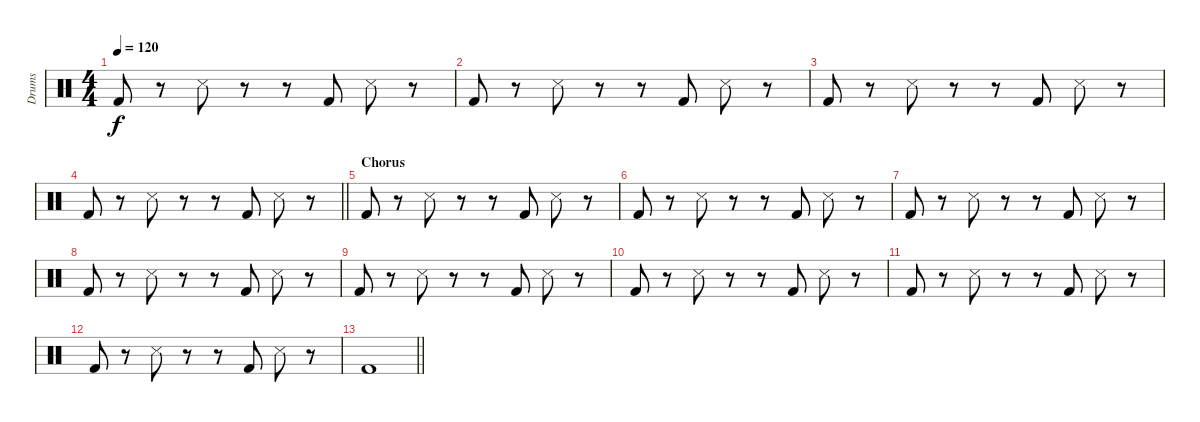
\track ("Drums" "Drums") {instrument percussion}
\staff {score}
\articulation defaults
\ts (4 4)
\tempo 120
\clef neutral
\ks c "Kick (hit) 2".8{dy f}
r.8 "Snare (side stick) 3".8 r.8 r.8 "Kick (hit) 2".8 "Snare (side stick) 3".8 r.8 |
"Kick (hit) 2".8 r.8 "Snare (side stick) 3".8 r.8 r.8 "Kick (hit) 2".8 "Snare (side stick) 3".8 r.8 |
"Kick (hit) 2".8 r.8 "Snare (side stick) 3".8 r.8 r.8 "Kick (hit) 2".8 "Snare (side stick) 3".8 r.8 |
\barLineRight lightlight "Kick (hit) 2".8
r.8 "Snare (side stick) 3".8 r.8 r.8 "Kick (hit) 2".8 "Snare (side stick) 3".8 r.8 |
\section ("" "Chorus")
"Kick (hit) 2".8 r.8 "Snare (side stick) 3".8 r.8 r.8 "Kick (hit) 2".8 "Snare (side stick) 3".8 r.8 |
"Kick (hit) 2".8 r.8 "Snare (side stick) 3".8 r.8 r.8 "Kick (hit) 2".8 "Snare (side stick) 3".8 r.8 |
"Kick (hit) 2".8 r.8 "Snare (side stick) 3".8 r.8 r.8 "Kick (hit) 2".8 "Snare (side stick) 3".8 r.8 |
"Kick (hit) 2".8 r.8 "Snare (side stick) 3".8 r.8 r.8 "Kick (hit) 2".8 "Snare (side stick) 3".8 r.8 |
"Kick (hit) 2".8 r.8 "Snare (side stick) 3".8 r.8 r.8 "Kick (hit) 2".8 "Snare (side stick) 3".8 r.8 |
"Kick (hit) 2".8 r.8 "Snare (side stick) 3".8 r.8 r.8 "Kick (hit) 2".8 "Snare (side stick) 3".8 r.8 |
"Kick (hit) 2".8 r.8 "Snare (side stick) 3".8 r.8 r.8 "Kick (hit) 2".8 "Snare (side stick) 3".8 r.8 |
"Kick (hit) 2".8 r.8 "Snare (side stick) 3".8 r.8 r.8 "Kick (hit) 2".8 "Snare (side stick) 3".8 r.8 |
\barLineRight lightlight "Kick (hit) 2".1
